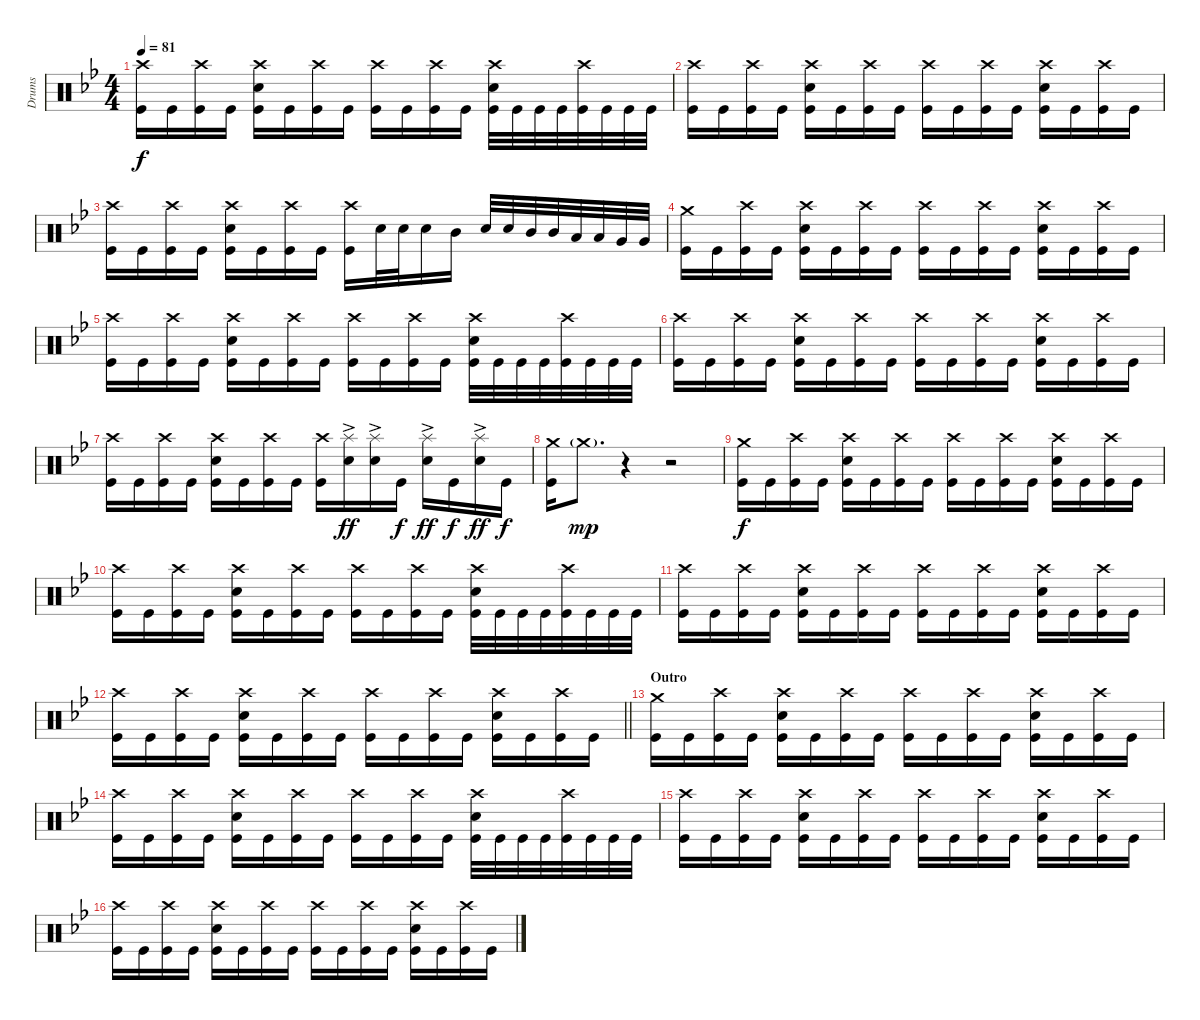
\track ("Drums" "Drums") {instrument percussion}
\staff {score}
\articulation defaults
\ts (4 4)
\tempo 81
\clef neutral
\ks gminor
("Crash high (hit)" "Kick (hit)").16{dy f} "Kick (hit)".16 ("Crash high (hit)" "Kick (hit)").16 "Kick (hit)".16 ("Crash high (hit)" "Electric Snare (hit)" "Kick (hit)").16 "Kick (hit)".16 ("Crash high (hit)" "Kick (hit)").16 "Kick (hit)".16 ("Crash high (hit)" "Kick (hit)").16 "Kick (hit)".16 ("Crash high (hit)" "Kick (hit)").16 "Kick (hit)".16 ("Crash high (hit)" "Electric Snare (hit)" "Kick (hit)").32 "Kick (hit)".32 "Kick (hit)".32 "Kick (hit)".32 ("Crash high (hit)" "Kick (hit)").32 "Kick (hit)".32 "Kick (hit)".32 "Kick (hit)".32 |
("Crash high (hit)" "Kick (hit)").16 "Kick (hit)".16 ("Crash high (hit)" "Kick (hit)").16 "Kick (hit)".16 ("Crash high (hit)" "Electric Snare (hit)" "Kick (hit)").16 "Kick (hit)".16 ("Crash high (hit)" "Kick (hit)").16 "Kick (hit)".16 ("Crash high (hit)" "Kick (hit)").16 "Kick (hit)".16 ("Crash high (hit)" "Kick (hit)").16 "Kick (hit)".16 ("Crash high (hit)" "Electric Snare (hit)" "Kick (hit)").16 "Kick (hit)".16 ("Crash high (hit)" "Kick (hit)").16 "Kick (hit)".16 |
("Crash high (hit)" "Kick (hit)").16 "Kick (hit)".16 ("Crash high (hit)" "Kick (hit)").16 "Kick (hit)".16 ("Crash high (hit)" "Electric Snare (hit)" "Kick (hit)").16 "Kick (hit)".16 ("Crash high (hit)" "Kick (hit)").16 "Kick (hit)".16 ("Crash high (hit)" "Kick (hit)").16 "Electric Snare (hit)".32 "Electric Snare (hit)".32 "Electric Snare (hit)".16 "Mid Tom (hit)".16 "Electric Snare (hit)".32 "Electric Snare (hit)".32 "Mid Tom (hit)".32 "Mid Tom (hit)".32 "Low Tom (hit)".32 "Low Tom (hit)".32 "Very Low Tom (hit)".32 "Very Low Tom (hit)".32 |
("Crash medium (hit)" "Kick (hit)").16 "Kick (hit)".16 ("Crash high (hit)" "Kick (hit)").16 "Kick (hit)".16 ("Crash high (hit)" "Electric Snare (hit)" "Kick (hit)").16 "Kick (hit)".16 ("Crash high (hit)" "Kick (hit)").16 "Kick (hit)".16 ("Crash high (hit)" "Kick (hit)").16 "Kick (hit)".16 ("Crash high (hit)" "Kick (hit)").16 "Kick (hit)".16 ("Crash high (hit)" "Electric Snare (hit)" "Kick (hit)").16 "Kick (hit)".16 ("Crash high (hit)" "Kick (hit)").16 "Kick (hit)".16 |
("Crash high (hit)" "Kick (hit)").16 "Kick (hit)".16 ("Crash high (hit)" "Kick (hit)").16 "Kick (hit)".16 ("Crash high (hit)" "Electric Snare (hit)" "Kick (hit)").16 "Kick (hit)".16 ("Crash high (hit)" "Kick (hit)").16 "Kick (hit)".16 ("Crash high (hit)" "Kick (hit)").16 "Kick (hit)".16 ("Crash high (hit)" "Kick (hit)").16 "Kick (hit)".16 ("Crash high (hit)" "Electric Snare (hit)" "Kick (hit)").32 "Kick (hit)".32 "Kick (hit)".32 "Kick (hit)".32 ("Crash high (hit)" "Kick (hit)").32 "Kick (hit)".32 "Kick (hit)".32 "Kick (hit)".32 |
("Crash high (hit)" "Kick (hit)").16 "Kick (hit)".16 ("Crash high (hit)" "Kick (hit)").16 "Kick (hit)".16 ("Crash high (hit)" "Electric Snare (hit)" "Kick (hit)").16 "Kick (hit)".16 ("Crash high (hit)" "Kick (hit)").16 "Kick (hit)".16 ("Crash high (hit)" "Kick (hit)").16 "Kick (hit)".16 ("Crash high (hit)" "Kick (hit)").16 "Kick (hit)".16 ("Crash high (hit)" "Electric Snare (hit)" "Kick (hit)").16 "Kick (hit)".16 ("Crash high (hit)" "Kick (hit)").16 "Kick (hit)".16 |
("Crash high (hit)" "Kick (hit)").16 "Kick (hit)".16 ("Crash high (hit)" "Kick (hit)").16 "Kick (hit)".16 ("Crash high (hit)" "Electric Snare (hit)" "Kick (hit)").16 "Kick (hit)".16 ("Crash high (hit)" "Kick (hit)").16 "Kick (hit)".16 ("Crash high (hit)" "Kick (hit)").16 ("Splash (hit)"{ac} "Electric Snare (hit)"{ac}).16{dy ff} ("Splash (hit)"{ac} "Electric Snare (hit)"{ac}).16 "Kick (hit)".16{dy f} ("Splash (hit)"{ac} "Electric Snare (hit)"{ac}).16{dy ff} "Kick (hit)".16{dy f} ("Splash (hit)"{ac} "Electric Snare (hit)"{ac}).16{dy ff} "Kick (hit)".16{dy f} |
("Crash medium (hit)" "Kick (hit)").16 "Crash medium (hit)"{g}.8{d dy mp} r.4 r.2 |
("Crash medium (hit)" "Kick (hit)").16{dy f} "Kick (hit)".16 ("Crash high (hit)" "Kick (hit)").16 "Kick (hit)".16 ("Crash high (hit)" "Electric Snare (hit)" "Kick (hit)").16 "Kick (hit)".16 ("Crash high (hit)" "Kick (hit)").16 "Kick (hit)".16 ("Crash high (hit)" "Kick (hit)").16 "Kick (hit)".16 ("Crash high (hit)" "Kick (hit)").16 "Kick (hit)".16 ("Crash high (hit)" "Electric Snare (hit)" "Kick (hit)").16 "Kick (hit)".16 ("Crash high (hit)" "Kick (hit)").16 "Kick (hit)".16 |
("Crash high (hit)" "Kick (hit)").16 "Kick (hit)".16 ("Crash high (hit)" "Kick (hit)").16 "Kick (hit)".16 ("Crash high (hit)" "Electric Snare (hit)" "Kick (hit)").16 "Kick (hit)".16 ("Crash high (hit)" "Kick (hit)").16 "Kick (hit)".16 ("Crash high (hit)" "Kick (hit)").16 "Kick (hit)".16 ("Crash high (hit)" "Kick (hit)").16 "Kick (hit)".16 ("Crash high (hit)" "Electric Snare (hit)" "Kick (hit)").32 "Kick (hit)".32 "Kick (hit)".32 "Kick (hit)".32 ("Crash high (hit)" "Kick (hit)").32 "Kick (hit)".32 "Kick (hit)".32 "Kick (hit)".32 |
("Crash high (hit)" "Kick (hit)").16 "Kick (hit)".16 ("Crash high (hit)" "Kick (hit)").16 "Kick (hit)".16 ("Crash high (hit)" "Electric Snare (hit)" "Kick (hit)").16 "Kick (hit)".16 ("Crash high (hit)" "Kick (hit)").16 "Kick (hit)".16 ("Crash high (hit)" "Kick (hit)").16 "Kick (hit)".16 ("Crash high (hit)" "Kick (hit)").16 "Kick (hit)".16 ("Crash high (hit)" "Electric Snare (hit)" "Kick (hit)").16 "Kick (hit)".16 ("Crash high (hit)" "Kick (hit)").16 "Kick (hit)".16 |
\barLineRight lightlight
("Crash high (hit)" "Kick (hit)").16 "Kick (hit)".16 ("Crash high (hit)" "Kick (hit)").16 "Kick (hit)".16 ("Crash high (hit)" "Electric Snare (hit)" "Kick (hit)").16 "Kick (hit)".16 ("Crash high (hit)" "Kick (hit)").16 "Kick (hit)".16 ("Crash high (hit)" "Kick (hit)").16 "Kick (hit)".16 ("Crash high (hit)" "Kick (hit)").16 "Kick (hit)".16 ("Crash high (hit)" "Electric Snare (hit)" "Kick (hit)").16 "Kick (hit)".16 ("Crash high (hit)" "Kick (hit)").16 "Kick (hit)".16 |
\section ("" "Outro")
("Crash medium (hit)" "Kick (hit)").16 "Kick (hit)".16 ("Crash high (hit)" "Kick (hit)").16 "Kick (hit)".16 ("Crash high (hit)" "Electric Snare (hit)" "Kick (hit)").16 "Kick (hit)".16 ("Crash high (hit)" "Kick (hit)").16 "Kick (hit)".16 ("Crash high (hit)" "Kick (hit)").16 "Kick (hit)".16 ("Crash high (hit)" "Kick (hit)").16 "Kick (hit)".16 ("Crash high (hit)" "Electric Snare (hit)" "Kick (hit)").16 "Kick (hit)".16 ("Crash high (hit)" "Kick (hit)").16 "Kick (hit)".16 |
("Crash high (hit)" "Kick (hit)").16 "Kick (hit)".16 ("Crash high (hit)" "Kick (hit)").16 "Kick (hit)".16 ("Crash high (hit)" "Electric Snare (hit)" "Kick (hit)").16 "Kick (hit)".16 ("Crash high (hit)" "Kick (hit)").16 "Kick (hit)".16 ("Crash high (hit)" "Kick (hit)").16 "Kick (hit)".16 ("Crash high (hit)" "Kick (hit)").16 "Kick (hit)".16 ("Crash high (hit)" "Electric Snare (hit)" "Kick (hit)").32 "Kick (hit)".32 "Kick (hit)".32 "Kick (hit)".32 ("Crash high (hit)" "Kick (hit)").32 "Kick (hit)".32 "Kick (hit)".32 "Kick (hit)".32 |
("Crash high (hit)" "Kick (hit)").16 "Kick (hit)".16 ("Crash high (hit)" "Kick (hit)").16 "Kick (hit)".16 ("Crash high (hit)" "Electric Snare (hit)" "Kick (hit)").16 "Kick (hit)".16 ("Crash high (hit)" "Kick (hit)").16 "Kick (hit)".16 ("Crash high (hit)" "Kick (hit)").16 "Kick (hit)".16 ("Crash high (hit)" "Kick (hit)").16 "Kick (hit)".16 ("Crash high (hit)" "Electric Snare (hit)" "Kick (hit)").16 "Kick (hit)".16 ("Crash high (hit)" "Kick (hit)").16 "Kick (hit)".16 |
("Crash high (hit)" "Kick (hit)").16 "Kick (hit)".16 ("Crash high (hit)" "Kick (hit)").16 "Kick (hit)".16 ("Crash high (hit)" "Electric Snare (hit)" "Kick (hit)").16 "Kick (hit)".16 ("Crash high (hit)" "Kick (hit)").16 "Kick (hit)".16 ("Crash high (hit)" "Kick (hit)").16 "Kick (hit)".16 ("Crash high (hit)" "Kick (hit)").16 "Kick (hit)".16 ("Crash high (hit)" "Electric Snare (hit)" "Kick (hit)").16 "Kick (hit)".16 ("Crash high (hit)" "Kick (hit)").16 "Kick (hit)".16
